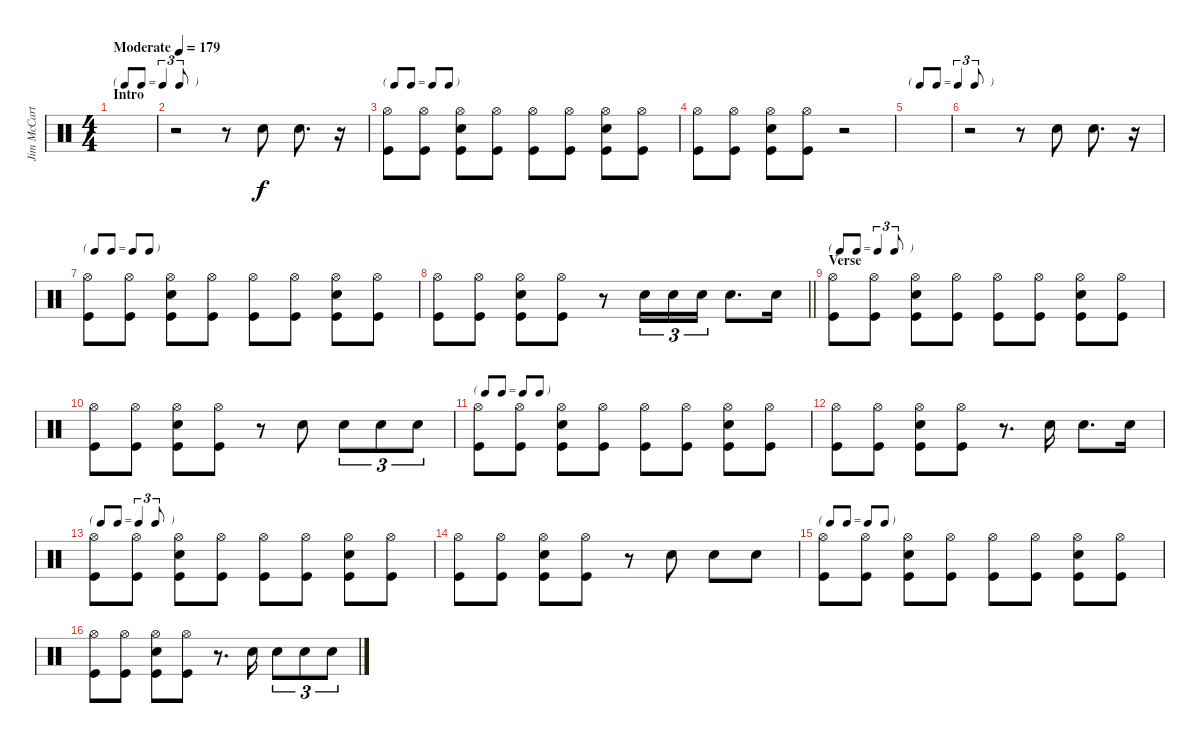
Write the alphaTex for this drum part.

\track ("Jim McCarty" "Jim McCart") {instrument percussion}
\staff {score}
\articulation defaults
\ts (4 4)
\tf triplet8th
\section ("" "Intro")
\tempo (179 "Moderate")
\clef neutral
\ks c
|
r.2 r.8 "Snare (hit) 2".8 "Snare (hit) 2".8{d} r.16 |
\tf none
("Hi-Hat (open)" "Kick (hit)").8 ("Hi-Hat (open)" "Kick (hit)").8 ("Hi-Hat (open)" "Snare (hit) 2" "Kick (hit)").8 ("Hi-Hat (open)" "Kick (hit)").8 ("Hi-Hat (open)" "Kick (hit)").8 ("Hi-Hat (open)" "Kick (hit)").8 ("Hi-Hat (open)" "Snare (hit) 2" "Kick (hit)").8 ("Hi-Hat (open)" "Kick (hit)").8 |
("Hi-Hat (open)" "Kick (hit)").8 ("Hi-Hat (open)" "Kick (hit)").8 ("Hi-Hat (open)" "Snare (hit) 2" "Kick (hit)").8 ("Hi-Hat (open)" "Kick (hit)").8 r.2 |
\tf triplet8th
|
r.2 r.8 "Snare (hit) 2".8 "Snare (hit) 2".8{d} r.16 |
\tf none
("Hi-Hat (open)" "Kick (hit)").8 ("Hi-Hat (open)" "Kick (hit)").8 ("Hi-Hat (open)" "Snare (hit) 2" "Kick (hit)").8 ("Hi-Hat (open)" "Kick (hit)").8 ("Hi-Hat (open)" "Kick (hit)").8 ("Hi-Hat (open)" "Kick (hit)").8 ("Hi-Hat (open)" "Snare (hit) 2" "Kick (hit)").8 ("Hi-Hat (open)" "Kick (hit)").8 |
\barLineRight lightlight
("Hi-Hat (open)" "Kick (hit)").8 ("Hi-Hat (open)" "Kick (hit)").8 ("Hi-Hat (open)" "Snare (hit) 2" "Kick (hit)").8 ("Hi-Hat (open)" "Kick (hit)").8 r.8 "Snare (hit) 2".16{tu (3 2)} "Snare (hit) 2".16{tu (3 2)} "Snare (hit) 2".16{tu (3 2)} "Snare (hit) 2".8{d} "Snare (hit) 2".16 |
\tf triplet8th
\section ("" "Verse")
("Hi-Hat (open)" "Kick (hit)").8 ("Hi-Hat (open)" "Kick (hit)").8 ("Hi-Hat (open)" "Snare (hit) 2" "Kick (hit)").8 ("Hi-Hat (open)" "Kick (hit)").8 ("Hi-Hat (open)" "Kick (hit)").8 ("Hi-Hat (open)" "Kick (hit)").8 ("Hi-Hat (open)" "Snare (hit) 2" "Kick (hit)").8 ("Hi-Hat (open)" "Kick (hit)").8 |
("Hi-Hat (open)" "Kick (hit)").8 ("Hi-Hat (open)" "Kick (hit)").8 ("Hi-Hat (open)" "Snare (hit) 2" "Kick (hit)").8 ("Hi-Hat (open)" "Kick (hit)").8 r.8 "Snare (hit) 2".8 "Snare (hit) 2".8{tu (3 2)} "Snare (hit) 2".8{tu (3 2)} "Snare (hit) 2".8{tu (3 2)} |
\tf none
("Hi-Hat (open)" "Kick (hit)").8 ("Hi-Hat (open)" "Kick (hit)").8 ("Hi-Hat (open)" "Snare (hit) 2" "Kick (hit)").8 ("Hi-Hat (open)" "Kick (hit)").8 ("Hi-Hat (open)" "Kick (hit)").8 ("Hi-Hat (open)" "Kick (hit)").8 ("Hi-Hat (open)" "Snare (hit) 2" "Kick (hit)").8 ("Hi-Hat (open)" "Kick (hit)").8 |
("Hi-Hat (open)" "Kick (hit)").8 ("Hi-Hat (open)" "Kick (hit)").8 ("Hi-Hat (open)" "Snare (hit) 2" "Kick (hit)").8 ("Hi-Hat (open)" "Kick (hit)").8 r.8{d} "Snare (hit) 2".16 "Snare (hit) 2".8{d} "Snare (hit) 2".16 |
\tf triplet8th
("Hi-Hat (open)" "Kick (hit)").8 ("Hi-Hat (open)" "Kick (hit)").8 ("Hi-Hat (open)" "Snare (hit) 2" "Kick (hit)").8 ("Hi-Hat (open)" "Kick (hit)").8 ("Hi-Hat (open)" "Kick (hit)").8 ("Hi-Hat (open)" "Kick (hit)").8 ("Hi-Hat (open)" "Snare (hit) 2" "Kick (hit)").8 ("Hi-Hat (open)" "Kick (hit)").8 |
("Hi-Hat (open)" "Kick (hit)").8 ("Hi-Hat (open)" "Kick (hit)").8 ("Hi-Hat (open)" "Snare (hit) 2" "Kick (hit)").8 ("Hi-Hat (open)" "Kick (hit)").8 r.8 "Snare (hit) 2".8 "Snare (hit) 2".8 "Snare (hit) 2".8 |
\tf none
("Hi-Hat (open)" "Kick (hit)").8 ("Hi-Hat (open)" "Kick (hit)").8 ("Hi-Hat (open)" "Snare (hit) 2" "Kick (hit)").8 ("Hi-Hat (open)" "Kick (hit)").8 ("Hi-Hat (open)" "Kick (hit)").8 ("Hi-Hat (open)" "Kick (hit)").8 ("Hi-Hat (open)" "Snare (hit) 2" "Kick (hit)").8 ("Hi-Hat (open)" "Kick (hit)").8 |
("Hi-Hat (open)" "Kick (hit)").8 ("Hi-Hat (open)" "Kick (hit)").8 ("Hi-Hat (open)" "Snare (hit) 2" "Kick (hit)").8 ("Hi-Hat (open)" "Kick (hit)").8 r.8{d} "Snare (hit) 2".16 "Snare (hit) 2".8{tu (3 2)} "Snare (hit) 2".8{tu (3 2)} "Snare (hit) 2".8{tu (3 2)}
